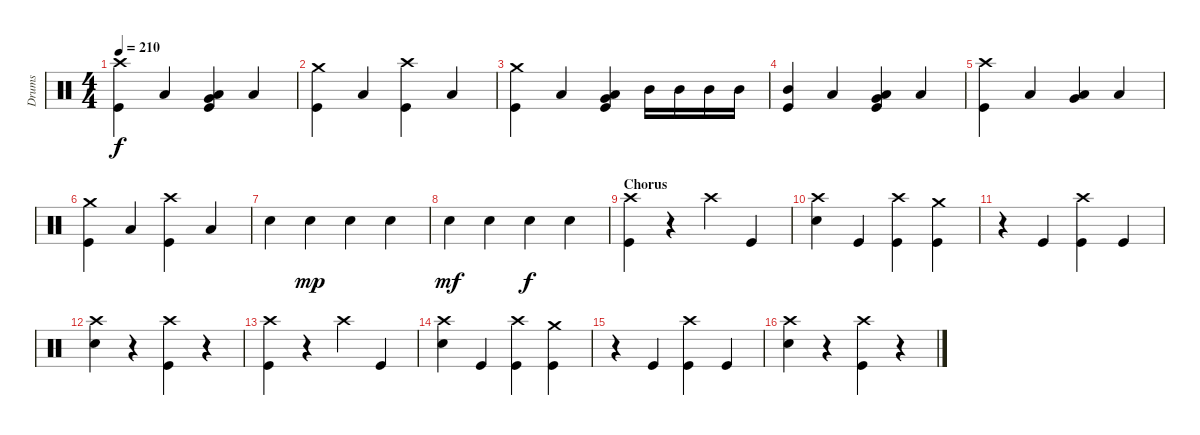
\track ("Drums" "Drums") {instrument percussion}
\staff {score}
\articulation defaults
\ts (4 4)
\tempo 210
\clef neutral
\ks c
("Crash high (hit)" "Kick (hit)").4{dy f} "Low Floor Tom (hit)".4 ("Low Tom (hit)" "Very Low Tom (hit)" "Kick (hit)").4 "Low Floor Tom (hit)".4 |
("Crash medium (hit)" "Kick (hit)").4 "Low Floor Tom (hit)".4 ("Crash high (hit)" "Kick (hit)").4 "Low Floor Tom (hit)".4 |
("Crash medium (hit)" "Kick (hit)").4 "Low Floor Tom (hit)".4 ("Low Tom (hit)" "Very Low Tom (hit)" "Kick (hit)").4 "Mid Tom (hit)".16 "Mid Tom (hit)".16 "Mid Tom (hit)".16 "Mid Tom (hit)".16 |
("Mid Tom (hit)" "Kick (hit)").4 "Low Floor Tom (hit)".4 ("Low Tom (hit)" "Very Low Tom (hit)" "Kick (hit)").4 "Low Floor Tom (hit)".4 |
("Crash high (hit)" "Kick (hit)").4 "Low Floor Tom (hit)".4 ("Low Tom (hit)" "Very Low Tom (hit)").4 "Low Floor Tom (hit)".4 |
("Crash medium (hit)" "Kick (hit)").4 "Low Floor Tom (hit)".4 ("Crash high (hit)" "Kick (hit)").4 "Low Floor Tom (hit)".4 |
"Snare (hit) 2".4 "Snare (hit) 2".4{dy mp} "Snare (hit) 2".4 "Snare (hit) 2".4 |
"Snare (hit) 2".4{dy mf} "Snare (hit) 2".4 "Snare (hit) 2".4{dy f} "Snare (hit) 2".4 |
\section ("" "Chorus")
("Crash high (hit)" "Kick (hit)").4 r.4 "Crash high (hit)".4 "Kick (hit)".4 |
("Crash high (hit)" "Snare (hit) 2").4 "Kick (hit)".4 ("Crash high (hit)" "Kick (hit)").4 ("Crash medium (hit)" "Kick (hit)").4 |
r.4 "Kick (hit)".4 ("Crash high (hit)" "Kick (hit)").4 "Kick (hit)".4 |
("Crash high (hit)" "Snare (hit) 2").4 r.4 ("Crash high (hit)" "Kick (hit)").4 r.4 |
("Crash high (hit)" "Kick (hit)").4 r.4 "Crash high (hit)".4 "Kick (hit)".4 |
("Crash high (hit)" "Snare (hit) 2").4 "Kick (hit)".4 ("Crash high (hit)" "Kick (hit)").4 ("Crash medium (hit)" "Kick (hit)").4 |
r.4 "Kick (hit)".4 ("Crash high (hit)" "Kick (hit)").4 "Kick (hit)".4 |
("Crash high (hit)" "Snare (hit) 2").4 r.4 ("Crash high (hit)" "Kick (hit)").4 r.4
